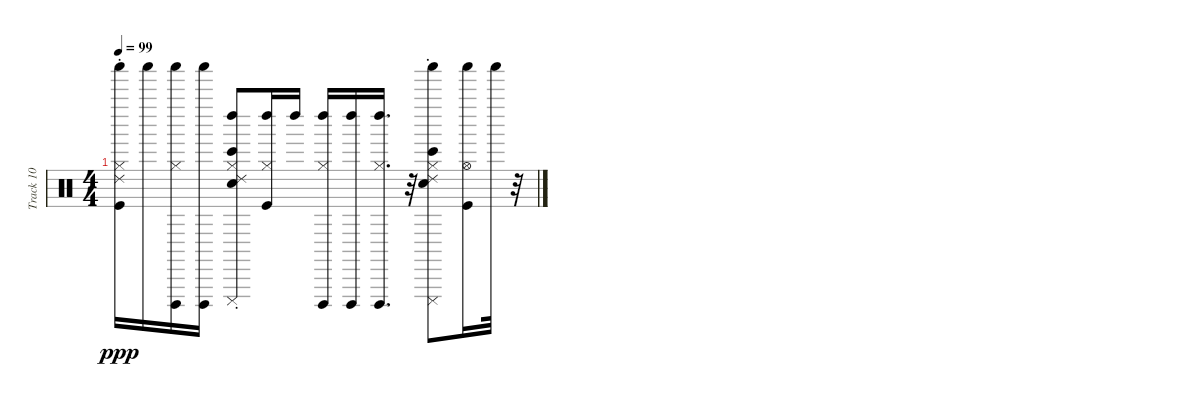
\track ("Track 10" "Track 10") {instrument percussion}
\staff {score}
\articulation defaults
\ts (4 4)
\tempo 99
\clef neutral
\ks c
("Ride (choke) 2" "Kick (hit)" "Hi-Hat (closed)" "Shaker (hit)").16{dy ppp} "Shaker (hit)".16 ("Hi-Hat (closed)" "Cuica (open)" "Shaker (hit)").16 ("Cuica (open)" "Shaker (hit)").16 ("Bongo High (hit)" "Ride (choke) 2" "Electric Snare (hit)" "Hi-Hat (closed)" "Left Maraca (hit)" "Cuica (mute)").8 ("Kick (hit)" "Hi-Hat (closed)" "Left Maraca (hit)").16 "Left Maraca (hit)".16 ("Hi-Hat (closed)" "Left Maraca (hit)" "Cuica (open)").16 ("Cuica (open)" "Left Maraca (hit)").16 ("Hi-Hat (closed)" "Left Maraca (hit)" "Cuica (open)").16{d} r.32 ("Bongo High (hit)" "Ride (choke) 2" "Electric Snare (hit)" "Hi-Hat (closed)" "Cuica (mute)" "Shaker (hit)").8 ("Kick (hit)" "Hi-Hat (open)" "Shaker (hit)").16 "Shaker (hit)".32 r.32
